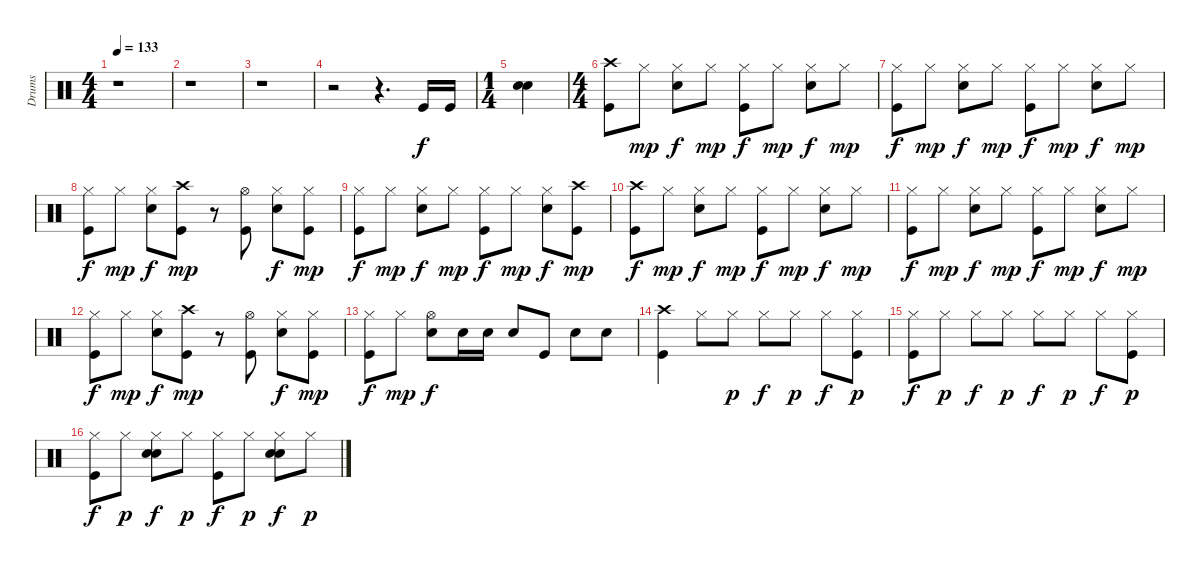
\track ("Drums" "Drums") {instrument percussion}
\staff {score}
\articulation defaults
\ts (4 4)
\tempo 133
\clef neutral
\ks c
r.1{dy f} |
r.1 |
r.1 |
r.2 r.4{d} "Kick (hit)".16 "Kick (hit)".16 |
\ts (1 4)
("Snare (hit) 2" "Electric Snare (hit)").4 |
\ts (4 4)
("Crash high (hit)" "Kick (hit)").8 "Hi-Hat (closed)".8{dy mp} ("Hi-Hat (closed)" "Snare (hit) 2").8{dy f} "Hi-Hat (closed)".8{dy mp} ("Hi-Hat (closed)" "Kick (hit)").8{dy f} "Hi-Hat (closed)".8{dy mp} ("Hi-Hat (closed)" "Snare (hit) 2").8{dy f} "Hi-Hat (closed)".8{dy mp} |
("Hi-Hat (closed)" "Kick (hit)").8{dy f} "Hi-Hat (closed)".8{dy mp} ("Hi-Hat (closed)" "Snare (hit) 2").8{dy f} "Hi-Hat (closed)".8{dy mp} ("Hi-Hat (closed)" "Kick (hit)").8{dy f} "Hi-Hat (closed)".8{dy mp} ("Hi-Hat (closed)" "Snare (hit) 2").8{dy f} "Hi-Hat (closed)".8{dy mp} |
("Hi-Hat (closed)" "Kick (hit)").8{dy f} "Hi-Hat (closed)".8{dy mp} ("Hi-Hat (closed)" "Snare (hit) 2").8{dy f} ("Crash high (hit)" "Kick (hit)").8{dy mp} r.8 ("Hi-Hat (open)" "Kick (hit)").8 ("Hi-Hat (closed)" "Snare (hit) 2").8{dy f} ("Hi-Hat (closed)" "Kick (hit)").8{dy mp} |
("Hi-Hat (closed)" "Kick (hit)").8{dy f} "Hi-Hat (closed)".8{dy mp} ("Hi-Hat (closed)" "Snare (hit) 2").8{dy f} "Hi-Hat (closed)".8{dy mp} ("Hi-Hat (closed)" "Kick (hit)").8{dy f} "Hi-Hat (closed)".8{dy mp} ("Hi-Hat (closed)" "Snare (hit) 2").8{dy f} ("Crash high (hit)" "Kick (hit)").8{dy mp} |
("Crash high (hit)" "Kick (hit)").8{dy f} "Hi-Hat (closed)".8{dy mp} ("Hi-Hat (closed)" "Snare (hit) 2").8{dy f} "Hi-Hat (closed)".8{dy mp} ("Hi-Hat (closed)" "Kick (hit)").8{dy f} "Hi-Hat (closed)".8{dy mp} ("Hi-Hat (closed)" "Snare (hit) 2").8{dy f} "Hi-Hat (closed)".8{dy mp} |
("Hi-Hat (closed)" "Kick (hit)").8{dy f} "Hi-Hat (closed)".8{dy mp} ("Hi-Hat (closed)" "Snare (hit) 2").8{dy f} "Hi-Hat (closed)".8{dy mp} ("Hi-Hat (closed)" "Kick (hit)").8{dy f} "Hi-Hat (closed)".8{dy mp} ("Hi-Hat (closed)" "Snare (hit) 2").8{dy f} "Hi-Hat (closed)".8{dy mp} |
("Hi-Hat (closed)" "Kick (hit)").8{dy f} "Hi-Hat (closed)".8{dy mp} ("Hi-Hat (closed)" "Snare (hit) 2").8{dy f} ("Crash high (hit)" "Kick (hit)").8{dy mp} r.8 ("Hi-Hat (open)" "Kick (hit)").8 ("Hi-Hat (closed)" "Snare (hit) 2").8{dy f} ("Hi-Hat (closed)" "Kick (hit)").8{dy mp} |
("Hi-Hat (closed)" "Kick (hit)").8{dy f} "Hi-Hat (closed)".8{dy mp} ("Hi-Hat (open)" "Snare (hit) 2").8{dy f} "Snare (hit) 2".16 "Snare (hit) 2".16 "Snare (hit) 2".8 "Kick (hit)".8 "Snare (hit) 2".8 "Snare (hit) 2".8 |
("Crash high (hit)" "Kick (hit)").4 "Hi-Hat (closed)".8 "Hi-Hat (closed)".8{dy p} "Hi-Hat (closed)".8{dy f} "Hi-Hat (closed)".8{dy p} "Hi-Hat (closed)".8{dy f} ("Hi-Hat (closed)" "Kick (hit)").8{dy p} |
("Hi-Hat (closed)" "Kick (hit)").8{dy f} "Hi-Hat (closed)".8{dy p} "Hi-Hat (closed)".8{dy f} "Hi-Hat (closed)".8{dy p} "Hi-Hat (closed)".8{dy f} "Hi-Hat (closed)".8{dy p} "Hi-Hat (closed)".8{dy f} ("Hi-Hat (closed)" "Kick (hit)").8{dy p} |
("Hi-Hat (closed)" "Kick (hit)").8{dy f} "Hi-Hat (closed)".8{dy p} ("Hi-Hat (closed)" "Snare (hit) 2" "Electric Snare (hit)").8{dy f} "Hi-Hat (closed)".8{dy p} ("Hi-Hat (closed)" "Kick (hit)").8{dy f} "Hi-Hat (closed)".8{dy p} ("Hi-Hat (closed)" "Electric Snare (hit)" "Snare (hit) 2").8{dy f} "Hi-Hat (closed)".8{dy p}
